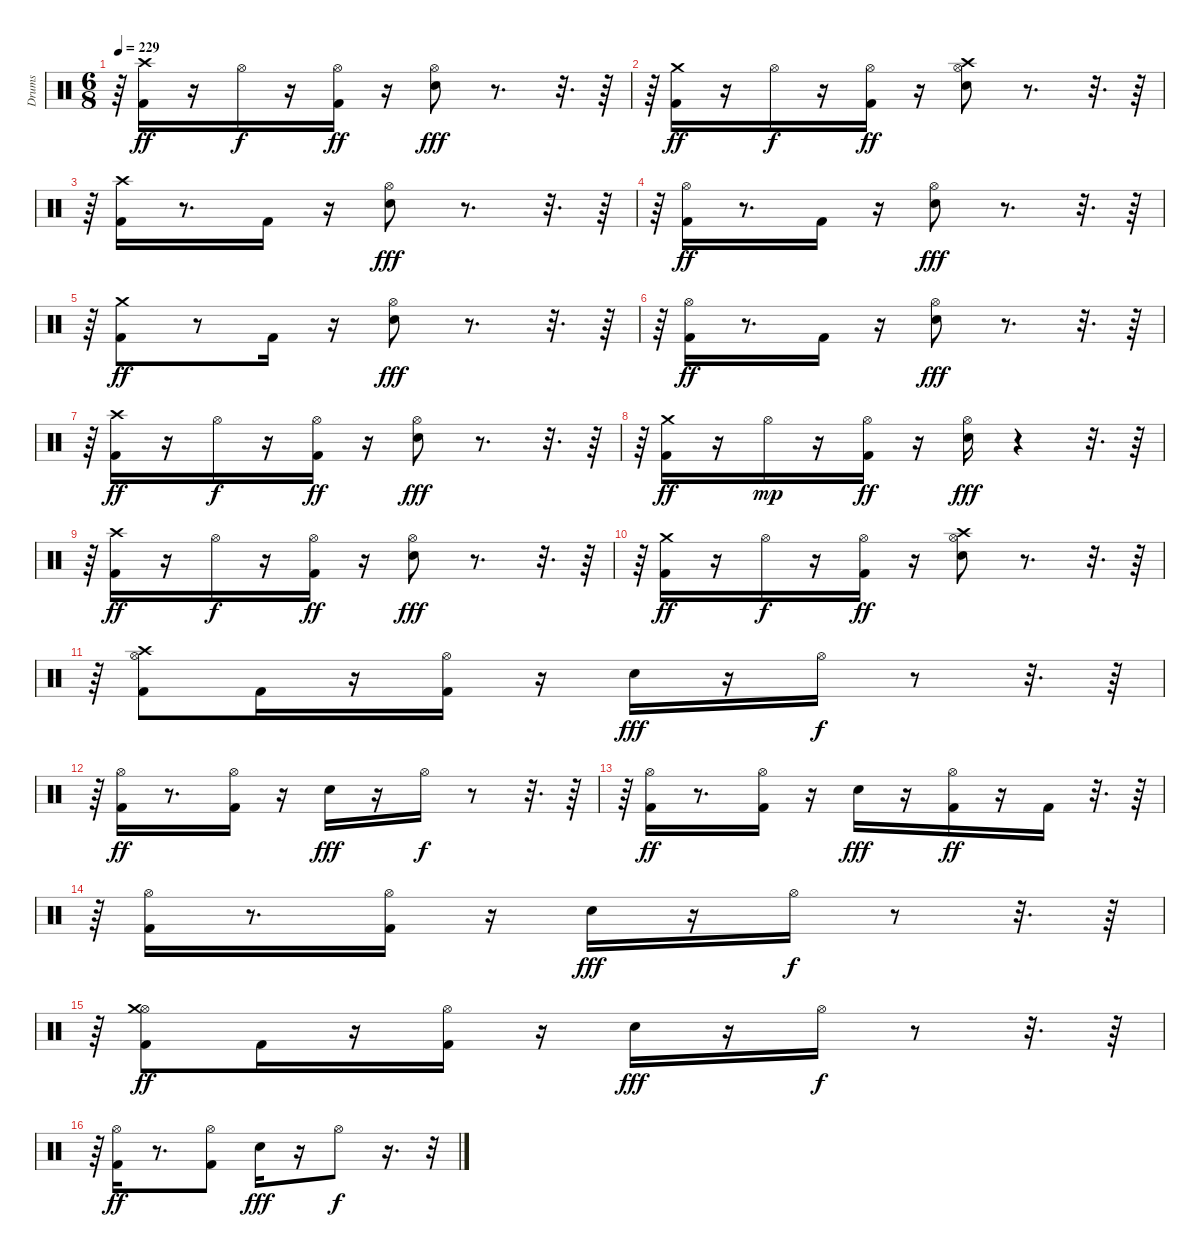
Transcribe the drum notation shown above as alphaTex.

\track ("Drums" "Drums") {instrument percussion}
\staff {score}
\articulation defaults
\ts (6 8)
\tempo 229
\clef neutral
\ks c
r.64{dy fff} ("Kick (hit) 2" "Crash high (hit)").16{dy ff} r.16 "Hi-Hat (open)".16{dy f} r.16 ("Kick (hit) 2" "Hi-Hat (open)").16{dy ff} r.16 ("Snare (hit) 2" "Hi-Hat (open)").8{dy fff} r.8{d} r.32{d} r.64 |
r.64 ("Kick (hit) 2" "Crash medium (hit)").16{dy ff} r.16 "Hi-Hat (open)".16{dy f} r.16 ("Kick (hit) 2" "Hi-Hat (open)").16{dy ff} r.16 ("Snare (hit) 2" "Hi-Hat (open)" "Crash high (hit)").8 r.8{d} r.32{d} r.64 |
r.64 ("Kick (hit) 2" "Crash high (hit)").16 r.8{d} "Kick (hit) 2".16 r.16 ("Snare (hit) 2" "Hi-Hat (open)").8{dy fff} r.8{d} r.32{d} r.64 |
r.64 ("Kick (hit) 2" "Hi-Hat (open)").16{dy ff} r.8{d} "Kick (hit) 2".16 r.16 ("Snare (hit) 2" "Hi-Hat (open)").8{dy fff} r.8{d} r.32{d} r.64 |
r.64 ("Kick (hit) 2" "Crash medium (hit)").8{dy ff} r.8 "Kick (hit) 2".16 r.16 ("Snare (hit) 2" "Hi-Hat (open)").8{dy fff} r.8{d} r.32{d} r.64 |
r.64 ("Kick (hit) 2" "Hi-Hat (open)").16{dy ff} r.8{d} "Kick (hit) 2".16 r.16 ("Snare (hit) 2" "Hi-Hat (open)").8{dy fff} r.8{d} r.32{d} r.64 |
r.64 ("Kick (hit) 2" "Crash high (hit)").16{dy ff} r.16 "Hi-Hat (open)".16{dy f} r.16 ("Kick (hit) 2" "Hi-Hat (open)").16{dy ff} r.16 ("Snare (hit) 2" "Hi-Hat (open)").8{dy fff} r.8{d} r.32{d} r.64 |
r.64 ("Kick (hit) 2" "Crash medium (hit)").16{dy ff} r.16 "Hi-Hat (open)".16{dy mp} r.16 ("Kick (hit) 2" "Hi-Hat (open)").16{dy ff} r.16 ("Snare (hit) 2" "Hi-Hat (open)").16{dy fff} r.4 r.32{d} r.64 |
r.64 ("Kick (hit) 2" "Crash high (hit)").16{dy ff} r.16 "Hi-Hat (open)".16{dy f} r.16 ("Kick (hit) 2" "Hi-Hat (open)").16{dy ff} r.16 ("Snare (hit) 2" "Hi-Hat (open)").8{dy fff} r.8{d} r.32{d} r.64 |
r.64 ("Kick (hit) 2" "Crash medium (hit)").16{dy ff} r.16 "Hi-Hat (open)".16{dy f} r.16 ("Kick (hit) 2" "Hi-Hat (open)").16{dy ff} r.16 ("Snare (hit) 2" "Hi-Hat (open)" "Crash high (hit)").8 r.8{d} r.32{d} r.64 |
r.64 ("Kick (hit) 2" "Hi-Hat (open)" "Crash high (hit)").8 "Kick (hit) 2".16 r.16 ("Kick (hit) 2" "Hi-Hat (open)").16 r.16 "Snare (hit) 2".16{dy fff} r.16 "Hi-Hat (open)".16{dy f} r.8 r.32{d} r.64 |
r.64 ("Kick (hit) 2" "Hi-Hat (open)").16{dy ff} r.8{d} ("Kick (hit) 2" "Hi-Hat (open)").16 r.16 "Snare (hit) 2".16{dy fff} r.16 "Hi-Hat (open)".16{dy f} r.8 r.32{d} r.64 |
r.64 ("Kick (hit) 2" "Hi-Hat (open)").16{dy ff} r.8{d} ("Kick (hit) 2" "Hi-Hat (open)").16 r.16 "Snare (hit) 2".16{dy fff} r.16 ("Kick (hit) 2" "Hi-Hat (open)").16{dy ff} r.16 "Kick (hit) 2".16 r.32{d} r.64 |
r.64 ("Kick (hit) 2" "Hi-Hat (open)").16 r.8{d} ("Kick (hit) 2" "Hi-Hat (open)").16 r.16 "Snare (hit) 2".16{dy fff} r.16 "Hi-Hat (open)".16{dy f} r.8 r.32{d} r.64 |
r.64 ("Kick (hit) 2" "Hi-Hat (open)" "Crash medium (hit)").8{dy ff} "Kick (hit) 2".16 r.16 ("Kick (hit) 2" "Hi-Hat (open)").16 r.16 "Snare (hit) 2".16{dy fff} r.16 "Hi-Hat (open)".16{dy f} r.8 r.32{d} r.64 |
r.64 ("Kick (hit) 2" "Hi-Hat (open)").16{dy ff} r.8{d} ("Kick (hit) 2" "Hi-Hat (open)").8 "Snare (hit) 2".16{dy fff} r.16 "Hi-Hat (open)".8{dy f} r.16{d} r.32{tu (5 4)}
